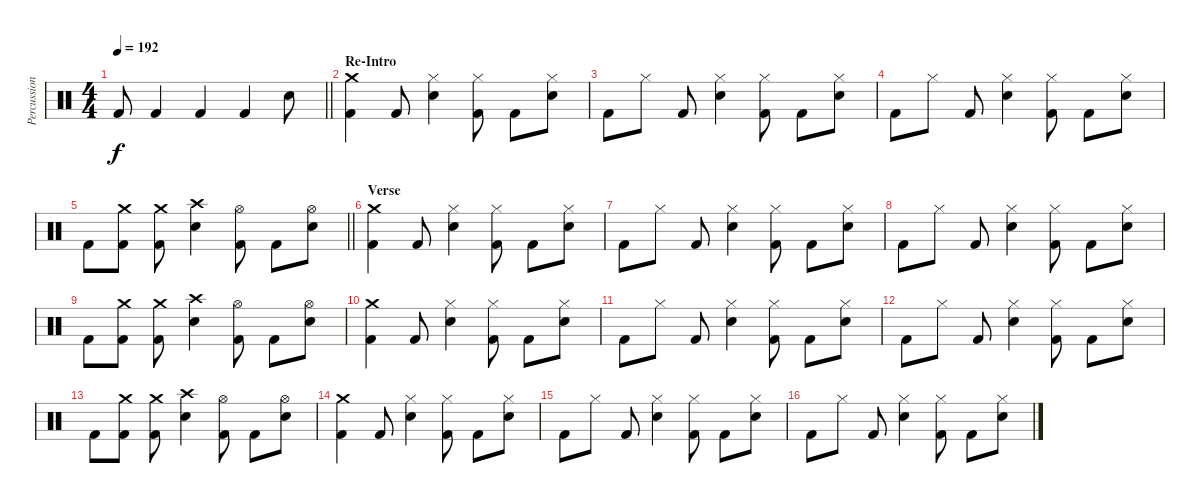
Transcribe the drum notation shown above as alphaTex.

\track ("Percussion" "Percussion") {instrument percussion}
\staff {score}
\articulation defaults
\ts (4 4)
\tempo 192
\clef neutral
\barLineRight lightlight
\ks c "Kick (hit) 2"{t}.8{dy f} "Kick (hit) 2".4 "Kick (hit) 2".4 "Kick (hit) 2".4 "Electric Snare (hit)".8
|
\section ("" "Re-Intro")
("Crash medium (hit)" "Kick (hit) 2").4 "Kick (hit) 2".8 ("Hi-Hat (closed)" "Electric Snare (hit)").4 ("Hi-Hat (closed)" "Kick (hit) 2").8 "Kick (hit) 2".8 ("Hi-Hat (closed)" "Electric Snare (hit)").8 |
"Kick (hit) 2".8 "Hi-Hat (closed)".8 "Kick (hit) 2".8 ("Hi-Hat (closed)" "Electric Snare (hit)").4 ("Hi-Hat (closed)" "Kick (hit) 2").8 "Kick (hit) 2".8 ("Hi-Hat (closed)" "Electric Snare (hit)").8 |
"Kick (hit) 2".8 "Hi-Hat (closed)".8 "Kick (hit) 2".8 ("Hi-Hat (closed)" "Electric Snare (hit)").4 ("Hi-Hat (closed)" "Kick (hit) 2").8 "Kick (hit) 2".8 ("Hi-Hat (closed)" "Electric Snare (hit)").8 |
\barLineRight lightlight "Kick (hit) 2".8
("Crash medium (hit)" "Kick (hit) 2").8 ("Crash medium (hit)" "Kick (hit) 2").8 ("Crash high (hit)" "Electric Snare (hit)").4 ("Hi-Hat (open)" "Kick (hit) 2").8 "Kick (hit) 2".8 ("Hi-Hat (open)" "Electric Snare (hit)").8 |
\section ("" "Verse")
("Crash medium (hit)" "Kick (hit) 2").4 "Kick (hit) 2".8 ("Hi-Hat (closed)" "Electric Snare (hit)").4 ("Hi-Hat (closed)" "Kick (hit) 2").8 "Kick (hit) 2".8 ("Hi-Hat (closed)" "Electric Snare (hit)").8 |
"Kick (hit) 2".8 "Hi-Hat (closed)".8 "Kick (hit) 2".8 ("Hi-Hat (closed)" "Electric Snare (hit)").4 ("Hi-Hat (closed)" "Kick (hit) 2").8 "Kick (hit) 2".8 ("Hi-Hat (closed)" "Electric Snare (hit)").8 |
"Kick (hit) 2".8 "Hi-Hat (closed)".8 "Kick (hit) 2".8 ("Hi-Hat (closed)" "Electric Snare (hit)").4 ("Hi-Hat (closed)" "Kick (hit) 2").8 "Kick (hit) 2".8 ("Hi-Hat (closed)" "Electric Snare (hit)").8 |
"Kick (hit) 2".8 ("Crash medium (hit)" "Kick (hit) 2").8 ("Crash medium (hit)" "Kick (hit) 2").8 ("Crash high (hit)" "Electric Snare (hit)").4 ("Hi-Hat (open)" "Kick (hit) 2").8 "Kick (hit) 2".8 ("Hi-Hat (open)" "Electric Snare (hit)").8 |
("Crash medium (hit)" "Kick (hit) 2").4 "Kick (hit) 2".8 ("Hi-Hat (closed)" "Electric Snare (hit)").4 ("Hi-Hat (closed)" "Kick (hit) 2").8 "Kick (hit) 2".8 ("Hi-Hat (closed)" "Electric Snare (hit)").8 |
"Kick (hit) 2".8 "Hi-Hat (closed)".8 "Kick (hit) 2".8 ("Hi-Hat (closed)" "Electric Snare (hit)").4 ("Hi-Hat (closed)" "Kick (hit) 2").8 "Kick (hit) 2".8 ("Hi-Hat (closed)" "Electric Snare (hit)").8 |
"Kick (hit) 2".8 "Hi-Hat (closed)".8 "Kick (hit) 2".8 ("Hi-Hat (closed)" "Electric Snare (hit)").4 ("Hi-Hat (closed)" "Kick (hit) 2").8 "Kick (hit) 2".8 ("Hi-Hat (closed)" "Electric Snare (hit)").8 |
"Kick (hit) 2".8 ("Crash medium (hit)" "Kick (hit) 2").8 ("Crash medium (hit)" "Kick (hit) 2").8 ("Crash high (hit)" "Electric Snare (hit)").4 ("Hi-Hat (open)" "Kick (hit) 2").8 "Kick (hit) 2".8 ("Hi-Hat (open)" "Electric Snare (hit)").8 |
("Crash medium (hit)" "Kick (hit) 2").4 "Kick (hit) 2".8 ("Hi-Hat (closed)" "Electric Snare (hit)").4 ("Hi-Hat (closed)" "Kick (hit) 2").8 "Kick (hit) 2".8 ("Hi-Hat (closed)" "Electric Snare (hit)").8 |
"Kick (hit) 2".8 "Hi-Hat (closed)".8 "Kick (hit) 2".8 ("Hi-Hat (closed)" "Electric Snare (hit)").4 ("Hi-Hat (closed)" "Kick (hit) 2").8 "Kick (hit) 2".8 ("Hi-Hat (closed)" "Electric Snare (hit)").8 |
"Kick (hit) 2".8 "Hi-Hat (closed)".8 "Kick (hit) 2".8 ("Hi-Hat (closed)" "Electric Snare (hit)").4 ("Hi-Hat (closed)" "Kick (hit) 2").8 "Kick (hit) 2".8 ("Hi-Hat (closed)" "Electric Snare (hit)").8
